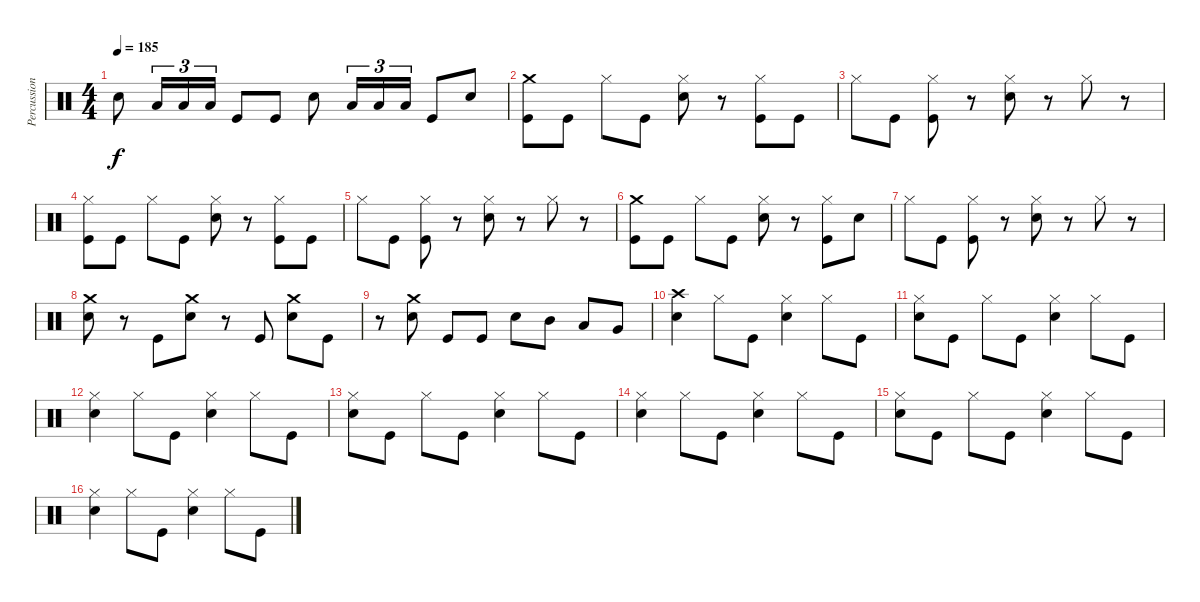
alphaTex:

\track ("Percussions" "Percussion") {instrument percussion}
\staff {score}
\articulation defaults
\ts (4 4)
\tempo 185
\clef neutral
\ks c "Electric Snare (hit)".8{dy f} "Low Tom (hit)".16{tu (3 2)} "Low Tom (hit)".16{tu (3 2)} "Low Tom (hit)".16{tu (3 2)} "Kick (hit)".8 "Kick (hit)".8 "Electric Snare (hit)".8 "Low Tom (hit)".16{tu (3 2)} "Low Tom (hit)".16{tu (3 2)} "Low Tom (hit)".16{tu (3 2)} "Kick (hit)".8 "Electric Snare (hit)".8
|
("Kick (hit)" "Crash medium (hit)").8 "Kick (hit)".8 "Hi-Hat (closed)".8 "Kick (hit)".8 ("Electric Snare (hit)" "Hi-Hat (closed)").8 r.8 ("Kick (hit)" "Hi-Hat (closed)").8 "Kick (hit)".8 |
"Hi-Hat (closed)".8 "Kick (hit)".8 ("Kick (hit)" "Hi-Hat (closed)").8 r.8 ("Electric Snare (hit)" "Hi-Hat (closed)").8 r.8 "Hi-Hat (closed)".8 r.8 |
("Kick (hit)" "Hi-Hat (closed)").8 "Kick (hit)".8 "Hi-Hat (closed)".8 "Kick (hit)".8 ("Electric Snare (hit)" "Hi-Hat (closed)").8 r.8 ("Kick (hit)" "Hi-Hat (closed)").8 "Kick (hit)".8 |
"Hi-Hat (closed)".8 "Kick (hit)".8 ("Kick (hit)" "Hi-Hat (closed)").8 r.8 ("Electric Snare (hit)" "Hi-Hat (closed)").8 r.8 "Hi-Hat (closed)".8 r.8 |
("Kick (hit)" "Crash medium (hit)").8 "Kick (hit)".8 "Hi-Hat (closed)".8 "Kick (hit)".8 ("Electric Snare (hit)" "Hi-Hat (closed)").8 r.8 ("Kick (hit)" "Hi-Hat (closed)").8 "Electric Snare (hit)".8 |
"Hi-Hat (closed)".8 "Kick (hit)".8 ("Kick (hit)" "Hi-Hat (closed)").8 r.8 ("Electric Snare (hit)" "Hi-Hat (closed)").8 r.8 "Hi-Hat (closed)".8 r.8 |
("Electric Snare (hit)" "Crash medium (hit)").8 r.8 "Kick (hit)".8 ("Electric Snare (hit)" "Crash medium (hit)").8 r.8 "Kick (hit)".8 ("Electric Snare (hit)" "Crash medium (hit)").8 "Kick (hit)".8 |
r.8 ("Electric Snare (hit)" "Crash medium (hit)").8 "Kick (hit)".8 "Kick (hit)".8 "Electric Snare (hit)".8 "Mid Tom (hit)".8 "Low Tom (hit)".8 "Very Low Tom (hit)".8 |
("Electric Snare (hit)" "Crash high (hit)").4 "Hi-Hat (closed)".8 "Kick (hit)".8 ("Electric Snare (hit)" "Hi-Hat (closed)").4 "Hi-Hat (closed)".8 "Kick (hit)".8 |
("Electric Snare (hit)" "Hi-Hat (closed)").8 "Kick (hit)".8 "Hi-Hat (closed)".8 "Kick (hit)".8 ("Electric Snare (hit)" "Hi-Hat (closed)").4 "Hi-Hat (closed)".8 "Kick (hit)".8 |
("Electric Snare (hit)" "Hi-Hat (closed)").4 "Hi-Hat (closed)".8 "Kick (hit)".8 ("Electric Snare (hit)" "Hi-Hat (closed)").4 "Hi-Hat (closed)".8 "Kick (hit)".8 |
("Electric Snare (hit)" "Hi-Hat (closed)").8 "Kick (hit)".8 "Hi-Hat (closed)".8 "Kick (hit)".8 ("Electric Snare (hit)" "Hi-Hat (closed)").4 "Hi-Hat (closed)".8 "Kick (hit)".8 |
("Electric Snare (hit)" "Hi-Hat (closed)").4 "Hi-Hat (closed)".8 "Kick (hit)".8 ("Electric Snare (hit)" "Hi-Hat (closed)").4 "Hi-Hat (closed)".8 "Kick (hit)".8 |
("Electric Snare (hit)" "Hi-Hat (closed)").8 "Kick (hit)".8 "Hi-Hat (closed)".8 "Kick (hit)".8 ("Electric Snare (hit)" "Hi-Hat (closed)").4 "Hi-Hat (closed)".8 "Kick (hit)".8 |
("Electric Snare (hit)" "Hi-Hat (closed)").4 "Hi-Hat (closed)".8 "Kick (hit)".8 ("Electric Snare (hit)" "Hi-Hat (closed)").4 "Hi-Hat (closed)".8 "Kick (hit)".8
